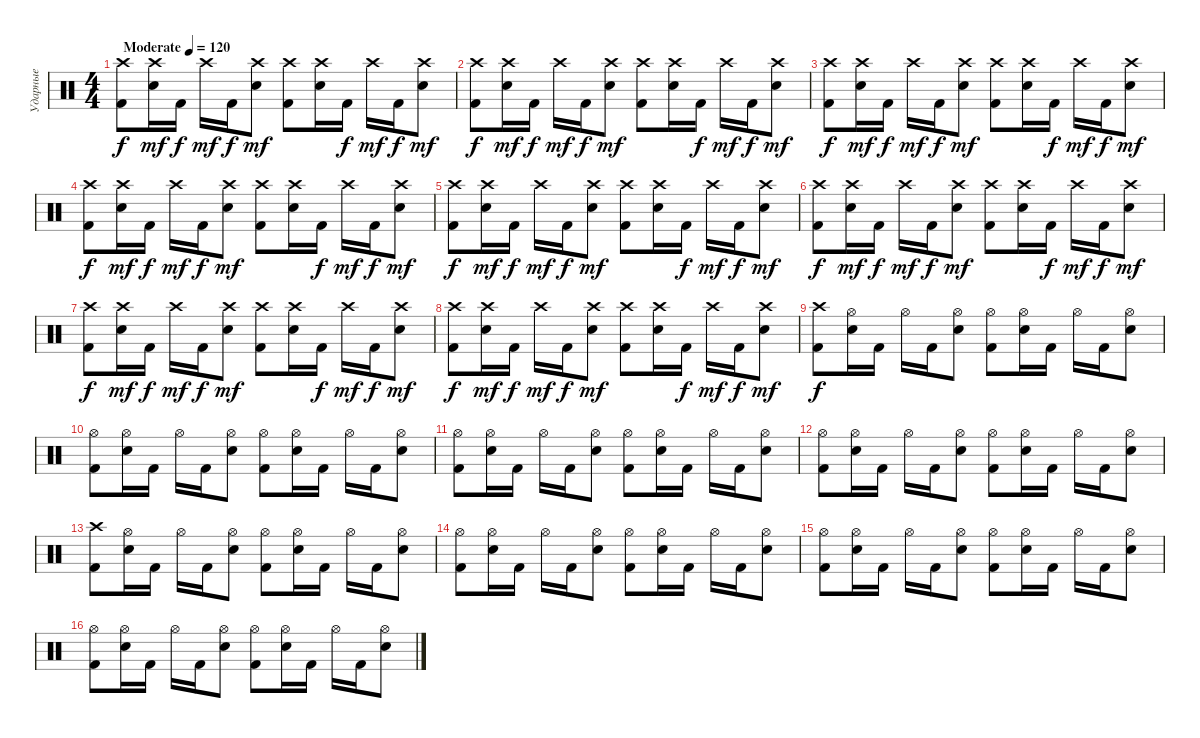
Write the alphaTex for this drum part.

\track ("Ударные" "Ударные") {instrument percussion}
\staff {score}
\articulation defaults
\ts (4 4)
\tempo (120 "Moderate")
\clef neutral
\ks c
("Crash high (hit)" "Kick (hit) 2").8{dy f} ("Crash high (hit)" "Electric Snare (hit)").16{dy mf} "Kick (hit) 2".16{dy f} "Crash high (hit)".16{dy mf} "Kick (hit) 2".16{dy f} ("Crash high (hit)" "Electric Snare (hit)").8{dy mf} ("Crash high (hit)" "Kick (hit) 2").8 ("Crash high (hit)" "Electric Snare (hit)").16 "Kick (hit) 2".16{dy f} "Crash high (hit)".16{dy mf} "Kick (hit) 2".16{dy f} ("Crash high (hit)" "Electric Snare (hit)").8{dy mf} |
("Crash high (hit)" "Kick (hit) 2").8{dy f} ("Crash high (hit)" "Electric Snare (hit)").16{dy mf} "Kick (hit) 2".16{dy f} "Crash high (hit)".16{dy mf} "Kick (hit) 2".16{dy f} ("Crash high (hit)" "Electric Snare (hit)").8{dy mf} ("Crash high (hit)" "Kick (hit) 2").8 ("Crash high (hit)" "Electric Snare (hit)").16 "Kick (hit) 2".16{dy f} "Crash high (hit)".16{dy mf} "Kick (hit) 2".16{dy f} ("Crash high (hit)" "Electric Snare (hit)").8{dy mf} |
("Crash high (hit)" "Kick (hit) 2").8{dy f} ("Crash high (hit)" "Electric Snare (hit)").16{dy mf} "Kick (hit) 2".16{dy f} "Crash high (hit)".16{dy mf} "Kick (hit) 2".16{dy f} ("Crash high (hit)" "Electric Snare (hit)").8{dy mf} ("Crash high (hit)" "Kick (hit) 2").8 ("Crash high (hit)" "Electric Snare (hit)").16 "Kick (hit) 2".16{dy f} "Crash high (hit)".16{dy mf} "Kick (hit) 2".16{dy f} ("Crash high (hit)" "Electric Snare (hit)").8{dy mf} |
("Crash high (hit)" "Kick (hit) 2").8{dy f} ("Crash high (hit)" "Electric Snare (hit)").16{dy mf} "Kick (hit) 2".16{dy f} "Crash high (hit)".16{dy mf} "Kick (hit) 2".16{dy f} ("Crash high (hit)" "Electric Snare (hit)").8{dy mf} ("Crash high (hit)" "Kick (hit) 2").8 ("Crash high (hit)" "Electric Snare (hit)").16 "Kick (hit) 2".16{dy f} "Crash high (hit)".16{dy mf} "Kick (hit) 2".16{dy f} ("Crash high (hit)" "Electric Snare (hit)").8{dy mf} |
("Crash high (hit)" "Kick (hit) 2").8{dy f} ("Crash high (hit)" "Electric Snare (hit)").16{dy mf} "Kick (hit) 2".16{dy f} "Crash high (hit)".16{dy mf} "Kick (hit) 2".16{dy f} ("Crash high (hit)" "Electric Snare (hit)").8{dy mf} ("Crash high (hit)" "Kick (hit) 2").8 ("Crash high (hit)" "Electric Snare (hit)").16 "Kick (hit) 2".16{dy f} "Crash high (hit)".16{dy mf} "Kick (hit) 2".16{dy f} ("Crash high (hit)" "Electric Snare (hit)").8{dy mf} |
("Crash high (hit)" "Kick (hit) 2").8{dy f} ("Crash high (hit)" "Electric Snare (hit)").16{dy mf} "Kick (hit) 2".16{dy f} "Crash high (hit)".16{dy mf} "Kick (hit) 2".16{dy f} ("Crash high (hit)" "Electric Snare (hit)").8{dy mf} ("Crash high (hit)" "Kick (hit) 2").8 ("Crash high (hit)" "Electric Snare (hit)").16 "Kick (hit) 2".16{dy f} "Crash high (hit)".16{dy mf} "Kick (hit) 2".16{dy f} ("Crash high (hit)" "Electric Snare (hit)").8{dy mf} |
("Crash high (hit)" "Kick (hit) 2").8{dy f} ("Crash high (hit)" "Electric Snare (hit)").16{dy mf} "Kick (hit) 2".16{dy f} "Crash high (hit)".16{dy mf} "Kick (hit) 2".16{dy f} ("Crash high (hit)" "Electric Snare (hit)").8{dy mf} ("Crash high (hit)" "Kick (hit) 2").8 ("Crash high (hit)" "Electric Snare (hit)").16 "Kick (hit) 2".16{dy f} "Crash high (hit)".16{dy mf} "Kick (hit) 2".16{dy f} ("Crash high (hit)" "Electric Snare (hit)").8{dy mf} |
("Crash high (hit)" "Kick (hit) 2").8{dy f} ("Crash high (hit)" "Electric Snare (hit)").16{dy mf} "Kick (hit) 2".16{dy f} "Crash high (hit)".16{dy mf} "Kick (hit) 2".16{dy f} ("Crash high (hit)" "Electric Snare (hit)").8{dy mf} ("Crash high (hit)" "Kick (hit) 2").8 ("Crash high (hit)" "Electric Snare (hit)").16 "Kick (hit) 2".16{dy f} "Crash high (hit)".16{dy mf} "Kick (hit) 2".16{dy f} ("Crash high (hit)" "Electric Snare (hit)").8{dy mf} |
("Crash high (hit)" "Kick (hit) 2").8{dy f} ("Hi-Hat (open)" "Electric Snare (hit)").16 "Kick (hit) 2".16 "Hi-Hat (open)".16 "Kick (hit) 2".16 ("Hi-Hat (open)" "Electric Snare (hit)").8 ("Hi-Hat (open)" "Kick (hit) 2").8 ("Hi-Hat (open)" "Electric Snare (hit)").16 "Kick (hit) 2".16 "Hi-Hat (open)".16 "Kick (hit) 2".16 ("Hi-Hat (open)" "Electric Snare (hit)").8 |
("Hi-Hat (open)" "Kick (hit) 2").8 ("Hi-Hat (open)" "Electric Snare (hit)").16 "Kick (hit) 2".16 "Hi-Hat (open)".16 "Kick (hit) 2".16 ("Hi-Hat (open)" "Electric Snare (hit)").8 ("Hi-Hat (open)" "Kick (hit) 2").8 ("Hi-Hat (open)" "Electric Snare (hit)").16 "Kick (hit) 2".16 "Hi-Hat (open)".16 "Kick (hit) 2".16 ("Hi-Hat (open)" "Electric Snare (hit)").8 |
("Hi-Hat (open)" "Kick (hit) 2").8 ("Hi-Hat (open)" "Electric Snare (hit)").16 "Kick (hit) 2".16 "Hi-Hat (open)".16 "Kick (hit) 2".16 ("Hi-Hat (open)" "Electric Snare (hit)").8 ("Hi-Hat (open)" "Kick (hit) 2").8 ("Hi-Hat (open)" "Electric Snare (hit)").16 "Kick (hit) 2".16 "Hi-Hat (open)".16 "Kick (hit) 2".16 ("Hi-Hat (open)" "Electric Snare (hit)").8 |
("Hi-Hat (open)" "Kick (hit) 2").8 ("Hi-Hat (open)" "Electric Snare (hit)").16 "Kick (hit) 2".16 "Hi-Hat (open)".16 "Kick (hit) 2".16 ("Hi-Hat (open)" "Electric Snare (hit)").8 ("Hi-Hat (open)" "Kick (hit) 2").8 ("Hi-Hat (open)" "Electric Snare (hit)").16 "Kick (hit) 2".16 "Hi-Hat (open)".16 "Kick (hit) 2".16 ("Hi-Hat (open)" "Electric Snare (hit)").8 |
("Crash high (hit)" "Kick (hit) 2").8 ("Hi-Hat (open)" "Electric Snare (hit)").16 "Kick (hit) 2".16 "Hi-Hat (open)".16 "Kick (hit) 2".16 ("Hi-Hat (open)" "Electric Snare (hit)").8 ("Hi-Hat (open)" "Kick (hit) 2").8 ("Hi-Hat (open)" "Electric Snare (hit)").16 "Kick (hit) 2".16 "Hi-Hat (open)".16 "Kick (hit) 2".16 ("Hi-Hat (open)" "Electric Snare (hit)").8 |
("Hi-Hat (open)" "Kick (hit) 2").8 ("Hi-Hat (open)" "Electric Snare (hit)").16 "Kick (hit) 2".16 "Hi-Hat (open)".16 "Kick (hit) 2".16 ("Hi-Hat (open)" "Electric Snare (hit)").8 ("Hi-Hat (open)" "Kick (hit) 2").8 ("Hi-Hat (open)" "Electric Snare (hit)").16 "Kick (hit) 2".16 "Hi-Hat (open)".16 "Kick (hit) 2".16 ("Hi-Hat (open)" "Electric Snare (hit)").8 |
("Hi-Hat (open)" "Kick (hit) 2").8 ("Hi-Hat (open)" "Electric Snare (hit)").16 "Kick (hit) 2".16 "Hi-Hat (open)".16 "Kick (hit) 2".16 ("Hi-Hat (open)" "Electric Snare (hit)").8 ("Hi-Hat (open)" "Kick (hit) 2").8 ("Hi-Hat (open)" "Electric Snare (hit)").16 "Kick (hit) 2".16 "Hi-Hat (open)".16 "Kick (hit) 2".16 ("Hi-Hat (open)" "Electric Snare (hit)").8 |
("Hi-Hat (open)" "Kick (hit) 2").8 ("Hi-Hat (open)" "Electric Snare (hit)").16 "Kick (hit) 2".16 "Hi-Hat (open)".16 "Kick (hit) 2".16 ("Hi-Hat (open)" "Electric Snare (hit)").8 ("Hi-Hat (open)" "Kick (hit) 2").8 ("Hi-Hat (open)" "Electric Snare (hit)").16 "Kick (hit) 2".16 "Hi-Hat (open)".16 "Kick (hit) 2".16 ("Hi-Hat (open)" "Electric Snare (hit)").8
